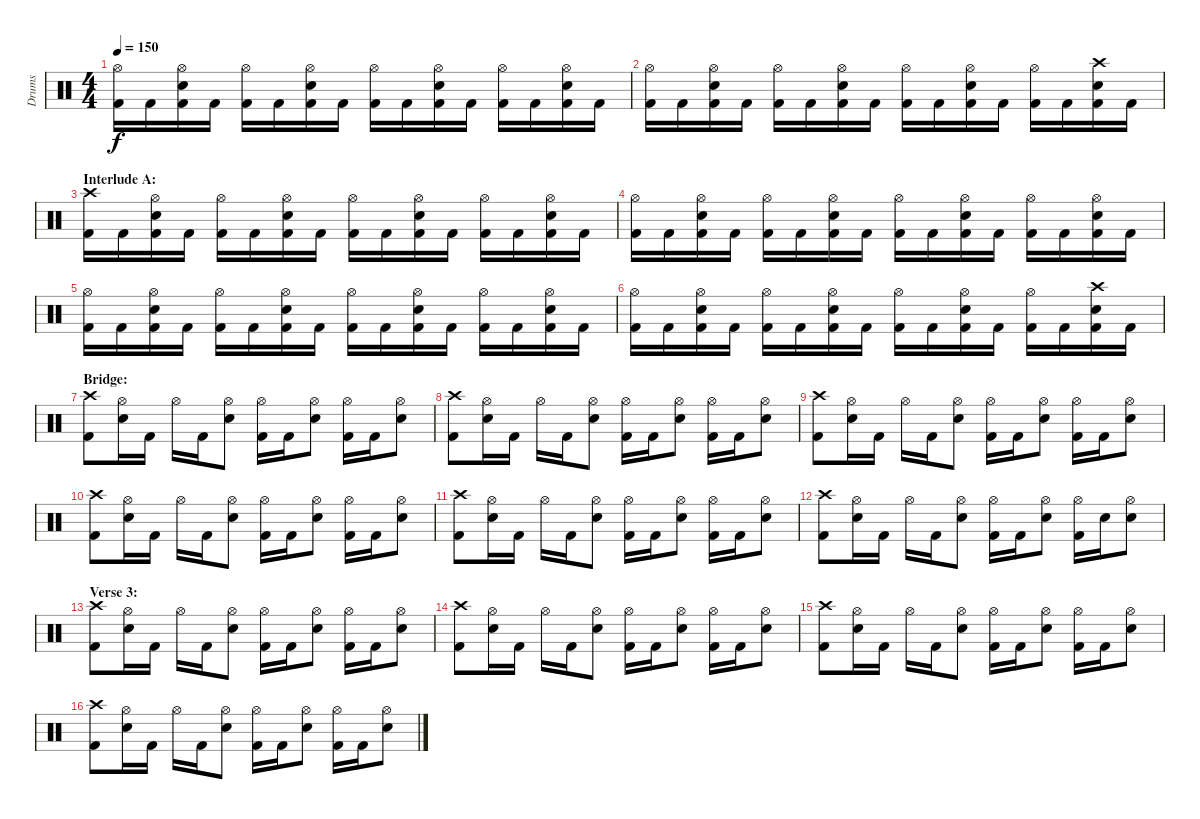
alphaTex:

\track ("Drums" "Drums") {instrument percussion}
\staff {score}
\articulation defaults
\ts (4 4)
\tempo 150
\clef neutral
\ks c
("Hi-Hat (open)" "Kick (hit) 2").16{dy f} "Kick (hit) 2".16 ("Hi-Hat (open)" "Snare (hit) 2" "Kick (hit) 2").16 "Kick (hit) 2".16 ("Hi-Hat (open)" "Kick (hit) 2").16 "Kick (hit) 2".16 ("Hi-Hat (open)" "Snare (hit) 2" "Kick (hit) 2").16 "Kick (hit) 2".16 ("Hi-Hat (open)" "Kick (hit) 2").16 "Kick (hit) 2".16 ("Hi-Hat (open)" "Snare (hit) 2" "Kick (hit) 2").16 "Kick (hit) 2".16 ("Hi-Hat (open)" "Kick (hit) 2").16 "Kick (hit) 2".16 ("Hi-Hat (open)" "Snare (hit) 2" "Kick (hit) 2").16 "Kick (hit) 2".16 |
("Hi-Hat (open)" "Kick (hit) 2").16 "Kick (hit) 2".16 ("Hi-Hat (open)" "Snare (hit) 2" "Kick (hit) 2").16 "Kick (hit) 2".16 ("Hi-Hat (open)" "Kick (hit) 2").16 "Kick (hit) 2".16 ("Hi-Hat (open)" "Snare (hit) 2" "Kick (hit) 2").16 "Kick (hit) 2".16 ("Hi-Hat (open)" "Kick (hit) 2").16 "Kick (hit) 2".16 ("Hi-Hat (open)" "Snare (hit) 2" "Kick (hit) 2").16 "Kick (hit) 2".16 ("Hi-Hat (open)" "Kick (hit) 2").16 "Kick (hit) 2".16 ("Crash high (hit)" "Snare (hit) 2" "Kick (hit) 2").16 "Kick (hit) 2".16 |
\section ("" "Interlude A:")
("Crash high (hit)" "Kick (hit) 2").16 "Kick (hit) 2".16 ("Hi-Hat (open)" "Snare (hit) 2" "Kick (hit) 2").16 "Kick (hit) 2".16 ("Hi-Hat (open)" "Kick (hit) 2").16 "Kick (hit) 2".16 ("Hi-Hat (open)" "Snare (hit) 2" "Kick (hit) 2").16 "Kick (hit) 2".16 ("Hi-Hat (open)" "Kick (hit) 2").16 "Kick (hit) 2".16 ("Hi-Hat (open)" "Snare (hit) 2" "Kick (hit) 2").16 "Kick (hit) 2".16 ("Hi-Hat (open)" "Kick (hit) 2").16 "Kick (hit) 2".16 ("Hi-Hat (open)" "Snare (hit) 2" "Kick (hit) 2").16 "Kick (hit) 2".16 |
("Hi-Hat (open)" "Kick (hit) 2").16 "Kick (hit) 2".16 ("Hi-Hat (open)" "Snare (hit) 2" "Kick (hit) 2").16 "Kick (hit) 2".16 ("Hi-Hat (open)" "Kick (hit) 2").16 "Kick (hit) 2".16 ("Hi-Hat (open)" "Snare (hit) 2" "Kick (hit) 2").16 "Kick (hit) 2".16 ("Hi-Hat (open)" "Kick (hit) 2").16 "Kick (hit) 2".16 ("Hi-Hat (open)" "Snare (hit) 2" "Kick (hit) 2").16 "Kick (hit) 2".16 ("Hi-Hat (open)" "Kick (hit) 2").16 "Kick (hit) 2".16 ("Hi-Hat (open)" "Snare (hit) 2" "Kick (hit) 2").16 "Kick (hit) 2".16 |
("Hi-Hat (open)" "Kick (hit) 2").16 "Kick (hit) 2".16 ("Hi-Hat (open)" "Snare (hit) 2" "Kick (hit) 2").16 "Kick (hit) 2".16 ("Hi-Hat (open)" "Kick (hit) 2").16 "Kick (hit) 2".16 ("Hi-Hat (open)" "Snare (hit) 2" "Kick (hit) 2").16 "Kick (hit) 2".16 ("Hi-Hat (open)" "Kick (hit) 2").16 "Kick (hit) 2".16 ("Hi-Hat (open)" "Snare (hit) 2" "Kick (hit) 2").16 "Kick (hit) 2".16 ("Hi-Hat (open)" "Kick (hit) 2").16 "Kick (hit) 2".16 ("Hi-Hat (open)" "Snare (hit) 2" "Kick (hit) 2").16 "Kick (hit) 2".16 |
("Hi-Hat (open)" "Kick (hit) 2").16 "Kick (hit) 2".16 ("Hi-Hat (open)" "Snare (hit) 2" "Kick (hit) 2").16 "Kick (hit) 2".16 ("Hi-Hat (open)" "Kick (hit) 2").16 "Kick (hit) 2".16 ("Hi-Hat (open)" "Snare (hit) 2" "Kick (hit) 2").16 "Kick (hit) 2".16 ("Hi-Hat (open)" "Kick (hit) 2").16 "Kick (hit) 2".16 ("Hi-Hat (open)" "Snare (hit) 2" "Kick (hit) 2").16 "Kick (hit) 2".16 ("Hi-Hat (open)" "Kick (hit) 2").16 "Kick (hit) 2".16 ("Crash high (hit)" "Snare (hit) 2" "Kick (hit) 2").16 "Kick (hit) 2".16 |
\section ("" "Bridge:")
("Crash high (hit)" "Kick (hit) 2").8 ("Hi-Hat (open)" "Snare (hit) 2").16 "Kick (hit) 2".16 "Hi-Hat (open)".16 "Kick (hit) 2".16 ("Hi-Hat (open)" "Snare (hit) 2").8 ("Hi-Hat (open)" "Kick (hit) 2").16 "Kick (hit) 2".16 ("Hi-Hat (open)" "Snare (hit) 2").8 ("Hi-Hat (open)" "Kick (hit) 2").16 "Kick (hit) 2".16 ("Hi-Hat (open)" "Snare (hit) 2").8 |
("Crash high (hit)" "Kick (hit) 2").8 ("Hi-Hat (open)" "Snare (hit) 2").16 "Kick (hit) 2".16 "Hi-Hat (open)".16 "Kick (hit) 2".16 ("Hi-Hat (open)" "Snare (hit) 2").8 ("Hi-Hat (open)" "Kick (hit) 2").16 "Kick (hit) 2".16 ("Hi-Hat (open)" "Snare (hit) 2").8 ("Hi-Hat (open)" "Kick (hit) 2").16 "Kick (hit) 2".16 ("Hi-Hat (open)" "Snare (hit) 2").8 |
("Crash high (hit)" "Kick (hit) 2").8 ("Hi-Hat (open)" "Snare (hit) 2").16 "Kick (hit) 2".16 "Hi-Hat (open)".16 "Kick (hit) 2".16 ("Hi-Hat (open)" "Snare (hit) 2").8 ("Hi-Hat (open)" "Kick (hit) 2").16 "Kick (hit) 2".16 ("Hi-Hat (open)" "Snare (hit) 2").8 ("Hi-Hat (open)" "Kick (hit) 2").16 "Kick (hit) 2".16 ("Hi-Hat (open)" "Snare (hit) 2").8 |
("Crash high (hit)" "Kick (hit) 2").8 ("Hi-Hat (open)" "Snare (hit) 2").16 "Kick (hit) 2".16 "Hi-Hat (open)".16 "Kick (hit) 2".16 ("Hi-Hat (open)" "Snare (hit) 2").8 ("Hi-Hat (open)" "Kick (hit) 2").16 "Kick (hit) 2".16 ("Hi-Hat (open)" "Snare (hit) 2").8 ("Hi-Hat (open)" "Kick (hit) 2").16 "Kick (hit) 2".16 ("Hi-Hat (open)" "Snare (hit) 2").8 |
("Crash high (hit)" "Kick (hit) 2").8 ("Hi-Hat (open)" "Snare (hit) 2").16 "Kick (hit) 2".16 "Hi-Hat (open)".16 "Kick (hit) 2".16 ("Hi-Hat (open)" "Snare (hit) 2").8 ("Hi-Hat (open)" "Kick (hit) 2").16 "Kick (hit) 2".16 ("Hi-Hat (open)" "Snare (hit) 2").8 ("Hi-Hat (open)" "Kick (hit) 2").16 "Kick (hit) 2".16 ("Hi-Hat (open)" "Snare (hit) 2").8 |
("Crash high (hit)" "Kick (hit) 2").8 ("Hi-Hat (open)" "Snare (hit) 2").16 "Kick (hit) 2".16 "Hi-Hat (open)".16 "Kick (hit) 2".16 ("Hi-Hat (open)" "Snare (hit) 2").8 ("Hi-Hat (open)" "Kick (hit) 2").16 "Kick (hit) 2".16 ("Hi-Hat (open)" "Snare (hit) 2").8 ("Hi-Hat (open)" "Kick (hit) 2").16 "Snare (hit) 2".16 ("Hi-Hat (open)" "Snare (hit) 2").8 |
\section ("" "Verse 3:")
("Crash high (hit)" "Kick (hit) 2").8 ("Hi-Hat (open)" "Snare (hit) 2").16 "Kick (hit) 2".16 "Hi-Hat (open)".16 "Kick (hit) 2".16 ("Hi-Hat (open)" "Snare (hit) 2").8 ("Hi-Hat (open)" "Kick (hit) 2").16 "Kick (hit) 2".16 ("Hi-Hat (open)" "Snare (hit) 2").8 ("Hi-Hat (open)" "Kick (hit) 2").16 "Kick (hit) 2".16 ("Hi-Hat (open)" "Snare (hit) 2").8 |
("Crash high (hit)" "Kick (hit) 2").8 ("Hi-Hat (open)" "Snare (hit) 2").16 "Kick (hit) 2".16 "Hi-Hat (open)".16 "Kick (hit) 2".16 ("Hi-Hat (open)" "Snare (hit) 2").8 ("Hi-Hat (open)" "Kick (hit) 2").16 "Kick (hit) 2".16 ("Hi-Hat (open)" "Snare (hit) 2").8 ("Hi-Hat (open)" "Kick (hit) 2").16 "Kick (hit) 2".16 ("Hi-Hat (open)" "Snare (hit) 2").8 |
("Crash high (hit)" "Kick (hit) 2").8 ("Hi-Hat (open)" "Snare (hit) 2").16 "Kick (hit) 2".16 "Hi-Hat (open)".16 "Kick (hit) 2".16 ("Hi-Hat (open)" "Snare (hit) 2").8 ("Hi-Hat (open)" "Kick (hit) 2").16 "Kick (hit) 2".16 ("Hi-Hat (open)" "Snare (hit) 2").8 ("Hi-Hat (open)" "Kick (hit) 2").16 "Kick (hit) 2".16 ("Hi-Hat (open)" "Snare (hit) 2").8 |
("Crash high (hit)" "Kick (hit) 2").8 ("Hi-Hat (open)" "Snare (hit) 2").16 "Kick (hit) 2".16 "Hi-Hat (open)".16 "Kick (hit) 2".16 ("Hi-Hat (open)" "Snare (hit) 2").8 ("Hi-Hat (open)" "Kick (hit) 2").16 "Kick (hit) 2".16 ("Hi-Hat (open)" "Snare (hit) 2").8 ("Hi-Hat (open)" "Kick (hit) 2").16 "Kick (hit) 2".16 ("Hi-Hat (open)" "Snare (hit) 2").8
